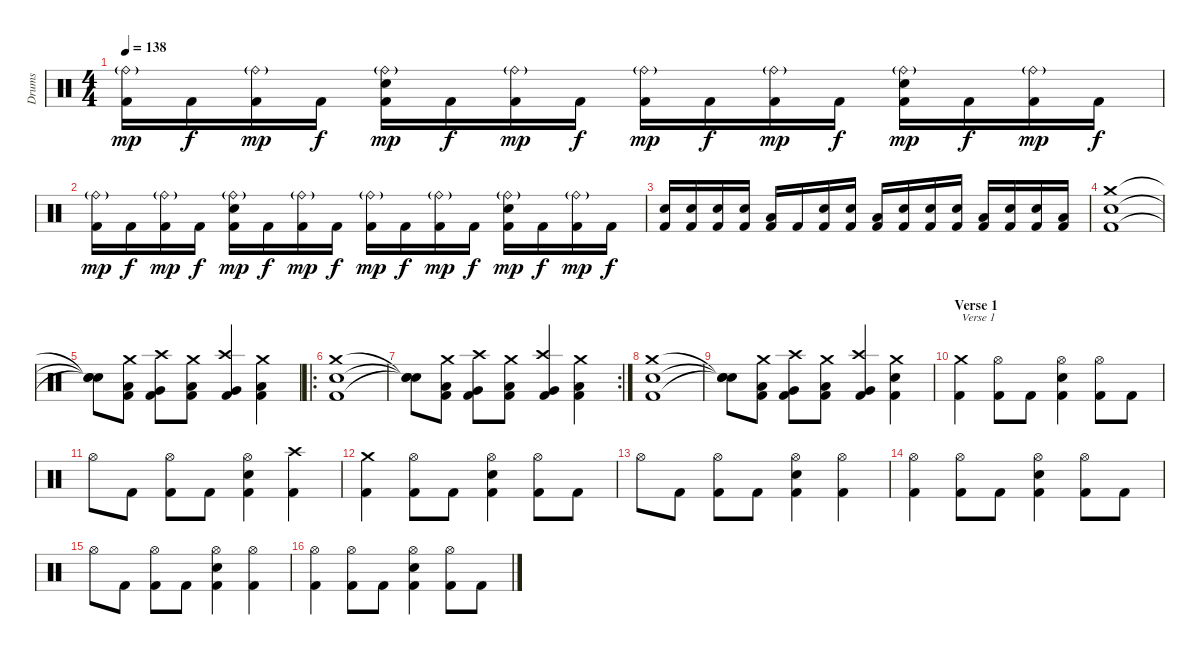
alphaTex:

\track ("Drums" "Drums") {instrument percussion}
\staff {score}
\articulation defaults
\ts (4 4)
\tempo 138
\clef neutral
\ks c
("Ride (bell)"{g} "Kick (hit) 2").16{dy mp} "Kick (hit) 2".16{dy f} ("Ride (bell)"{g} "Kick (hit) 2").16{dy mp} "Kick (hit) 2".16{dy f} ("Ride (bell)"{g} "Electric Snare (hit)" "Kick (hit) 2").16{dy mp} "Kick (hit) 2".16{dy f} ("Ride (bell)"{g} "Kick (hit) 2").16{dy mp} "Kick (hit) 2".16{dy f} ("Ride (bell)"{g} "Kick (hit) 2").16{dy mp} "Kick (hit) 2".16{dy f} ("Ride (bell)"{g} "Kick (hit) 2").16{dy mp} "Kick (hit) 2".16{dy f} ("Ride (bell)"{g} "Electric Snare (hit)" "Kick (hit) 2").16{dy mp} "Kick (hit) 2".16{dy f} ("Ride (bell)"{g} "Kick (hit) 2").16{dy mp} "Kick (hit) 2".16{dy f} |
("Ride (bell)"{g} "Kick (hit) 2").16{dy mp} "Kick (hit) 2".16{dy f} ("Ride (bell)"{g} "Kick (hit) 2").16{dy mp} "Kick (hit) 2".16{dy f} ("Ride (bell)"{g} "Electric Snare (hit)" "Kick (hit) 2").16{dy mp} "Kick (hit) 2".16{dy f} ("Ride (bell)"{g} "Kick (hit) 2").16{dy mp} "Kick (hit) 2".16{dy f} ("Ride (bell)"{g} "Kick (hit) 2").16{dy mp} "Kick (hit) 2".16{dy f} ("Ride (bell)"{g} "Kick (hit) 2").16{dy mp} "Kick (hit) 2".16{dy f} ("Ride (bell)"{g} "Electric Snare (hit)" "Kick (hit) 2").16{dy mp} "Kick (hit) 2".16{dy f} ("Ride (bell)"{g} "Kick (hit) 2").16{dy mp} "Kick (hit) 2".16{dy f} |
("Electric Snare (hit)" "Kick (hit) 2").16 ("Electric Snare (hit)" "Kick (hit) 2").16 ("Electric Snare (hit)" "Kick (hit) 2").16 ("Electric Snare (hit)" "Kick (hit) 2").16 ("Low Floor Tom (hit)" "Kick (hit) 2").16 "Kick (hit) 2".16 ("Electric Snare (hit)" "Kick (hit) 2").16 ("Electric Snare (hit)" "Kick (hit) 2").16 ("Low Floor Tom (hit)" "Kick (hit) 2").16 ("Electric Snare (hit)" "Kick (hit) 2").16 ("Electric Snare (hit)" "Kick (hit) 2").16 ("Electric Snare (hit)" "Kick (hit) 2").16 ("Low Floor Tom (hit)" "Kick (hit) 2").16 ("Electric Snare (hit)" "Kick (hit) 2").16 ("Electric Snare (hit)" "Kick (hit) 2").16 ("Low Floor Tom (hit)" "Kick (hit) 2").16 |
("Crash medium (hit)" "Electric Snare (hit)" "Kick (hit) 2").1 |
("Snare (hit)"{t} "Snare (hit)"{t} "Snare (hit)"{t}).8 ("Crash medium (hit)" "Low Floor Tom (hit)" "Kick (hit) 2").8 ("Crash high (hit)" "Very Low Tom (hit)" "Kick (hit) 2").8 ("Crash medium (hit)" "Low Floor Tom (hit)" "Kick (hit) 2").8 ("Crash high (hit)" "Very Low Tom (hit)" "Kick (hit) 2").4 ("Crash medium (hit)" "Low Floor Tom (hit)" "Kick (hit) 2").4 |
\ro
("Crash medium (hit)" "Electric Snare (hit)" "Kick (hit) 2").1 |
\rc 2
("Snare (hit)"{t} "Snare (hit)"{t} "Snare (hit)"{t}).8 ("Crash medium (hit)" "Low Floor Tom (hit)" "Kick (hit) 2").8 ("Crash high (hit)" "Very Low Tom (hit)" "Kick (hit) 2").8 ("Crash medium (hit)" "Low Floor Tom (hit)" "Kick (hit) 2").8 ("Crash high (hit)" "Very Low Tom (hit)" "Kick (hit) 2").4 ("Crash medium (hit)" "Low Floor Tom (hit)" "Kick (hit) 2").4 |
("Crash medium (hit)" "Electric Snare (hit)" "Kick (hit) 2").1 |
("Snare (hit)"{t} "Snare (hit)"{t} "Snare (hit)"{t}).8 ("Crash medium (hit)" "Low Floor Tom (hit)" "Kick (hit) 2").8 ("Crash high (hit)" "Very Low Tom (hit)" "Kick (hit) 2").8 ("Crash medium (hit)" "Low Floor Tom (hit)" "Kick (hit) 2").8 ("Crash high (hit)" "Very Low Tom (hit)" "Kick (hit) 2").4 ("Crash medium (hit)" "Electric Snare (hit)" "Kick (hit) 2").4 |
\section ("" "Verse 1")
("Crash medium (hit)" "Kick (hit) 2").4{txt "Verse 1"} ("Hi-Hat (open)" "Kick (hit) 2").8 "Kick (hit) 2".8 ("Hi-Hat (open)" "Electric Snare (hit)" "Kick (hit) 2").4 ("Hi-Hat (open)" "Kick (hit) 2").8 "Kick (hit) 2".8 |
"Hi-Hat (open)".8 "Kick (hit) 2".8 ("Hi-Hat (open)" "Kick (hit) 2").8 "Kick (hit) 2".8 ("Hi-Hat (open)" "Electric Snare (hit)" "Kick (hit) 2").4 ("Crash high (hit)" "Kick (hit) 2").4 |
("Crash medium (hit)" "Kick (hit) 2").4 ("Hi-Hat (open)" "Kick (hit) 2").8 "Kick (hit) 2".8 ("Hi-Hat (open)" "Electric Snare (hit)" "Kick (hit) 2").4 ("Hi-Hat (open)" "Kick (hit) 2").8 "Kick (hit) 2".8 |
"Hi-Hat (open)".8 "Kick (hit) 2".8 ("Hi-Hat (open)" "Kick (hit) 2").8 "Kick (hit) 2".8 ("Hi-Hat (open)" "Electric Snare (hit)" "Kick (hit) 2").4 ("Hi-Hat (open)" "Kick (hit) 2").4 |
("Hi-Hat (open)" "Kick (hit) 2").4 ("Hi-Hat (open)" "Kick (hit) 2").8 "Kick (hit) 2".8 ("Hi-Hat (open)" "Electric Snare (hit)" "Kick (hit) 2").4 ("Hi-Hat (open)" "Kick (hit) 2").8 "Kick (hit) 2".8 |
"Hi-Hat (open)".8 "Kick (hit) 2".8 ("Hi-Hat (open)" "Kick (hit) 2").8 "Kick (hit) 2".8 ("Hi-Hat (open)" "Electric Snare (hit)" "Kick (hit) 2").4 ("Hi-Hat (open)" "Kick (hit) 2").4 |
("Hi-Hat (open)" "Kick (hit) 2").4 ("Hi-Hat (open)" "Kick (hit) 2").8 "Kick (hit) 2".8 ("Hi-Hat (open)" "Electric Snare (hit)" "Kick (hit) 2").4 ("Hi-Hat (open)" "Kick (hit) 2").8 "Kick (hit) 2".8
